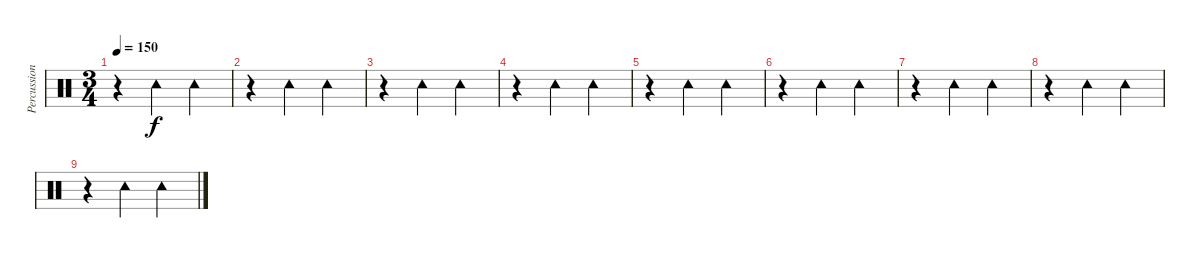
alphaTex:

\track ("Percussions" "Percussion") {instrument percussion bank 1}
\staff {score}
\articulation defaults
\ts (3 4)
\tempo 150
\clef neutral
\ks c
r.4{dy f} "Tambourine (hit)".4 "Tambourine (hit)".4 |
r.4 "Tambourine (hit)".4 "Tambourine (hit)".4 |
r.4 "Tambourine (hit)".4 "Tambourine (hit)".4 |
r.4 "Tambourine (hit)".4 "Tambourine (hit)".4 |
r.4 "Tambourine (hit)".4 "Tambourine (hit)".4 |
r.4 "Tambourine (hit)".4 "Tambourine (hit)".4 |
r.4 "Tambourine (hit)".4 "Tambourine (hit)".4 |
r.4 "Tambourine (hit)".4 "Tambourine (hit)".4 |
r.4 "Tambourine (hit)".4 "Tambourine (hit)".4
